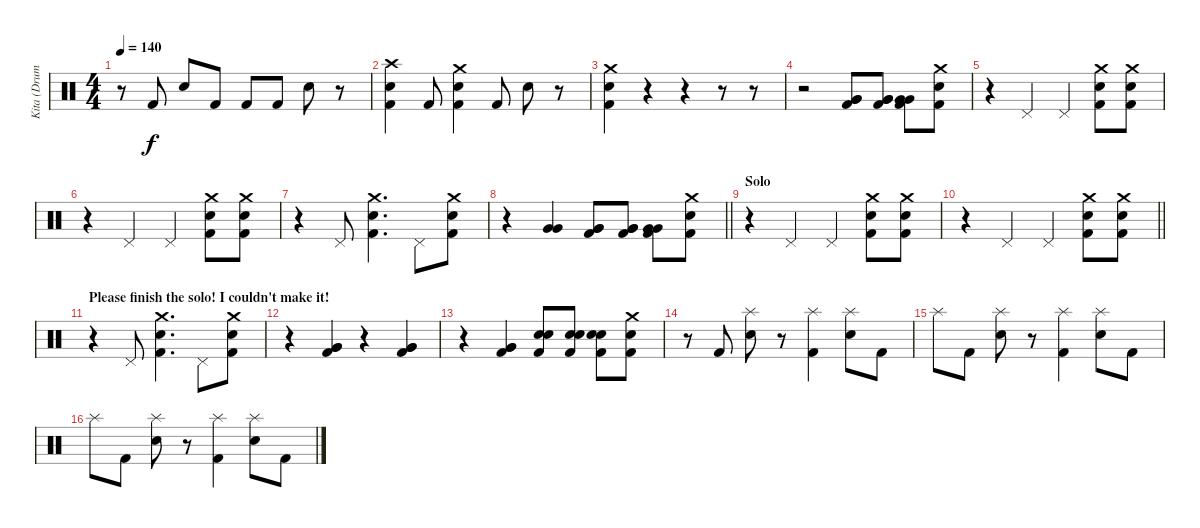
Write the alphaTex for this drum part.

\track ("Kita (Drums)" "Kita (Drum") {instrument percussion}
\staff {score}
\articulation defaults
\ts (4 4)
\tempo 140
\clef neutral
\ks c
r.8{dy f} "Kick (hit) 2".8 "Snare (hit) 2".8 "Kick (hit) 2".8 "Kick (hit) 2".8 "Kick (hit) 2".8 "Snare (hit) 2".8 r.8 |
("Crash high (hit)" "Snare (hit) 2" "Kick (hit) 2").4 "Kick (hit) 2".8 ("Crash medium (hit)" "Snare (hit) 2" "Kick (hit) 2").4 "Kick (hit) 2".8 "Snare (hit) 2".8 r.8 |
("Crash medium (hit)" "Snare (hit) 2" "Kick (hit) 2").4 r.4 r.4 r.8 r.8 |
r.2 ("Very Low Tom (hit)" "Very Low Tom (hit)" "Kick (hit) 2").8 ("Very Low Tom (hit)" "Very Low Tom (hit)" "Kick (hit) 2").8 ("Very Low Tom (hit)" "Very Low Tom (hit)" "Kick (hit) 2").8 ("Crash medium (hit)" "Snare (hit) 2" "Kick (hit) 2").8 |
r.4 "Pedal Hi-Hat (hit)".4 "Pedal Hi-Hat (hit)".4 ("Crash medium (hit)" "Snare (hit) 2" "Kick (hit) 2").8 ("Crash medium (hit)" "Snare (hit) 2" "Kick (hit) 2").8 |
r.4 "Pedal Hi-Hat (hit)".4 "Pedal Hi-Hat (hit)".4 ("Crash medium (hit)" "Snare (hit) 2" "Kick (hit) 2").8 ("Crash medium (hit)" "Snare (hit) 2" "Kick (hit) 2").8 |
r.4 "Pedal Hi-Hat (hit)".8 ("Crash medium (hit)" "Snare (hit) 2" "Kick (hit) 2").4{d} "Pedal Hi-Hat (hit)".8 ("Crash medium (hit)" "Snare (hit) 2" "Kick (hit) 2").8 |
\barLineRight lightlight
r.4 ("Very Low Tom (hit)" "Very Low Tom (hit)").4 ("Very Low Tom (hit)" "Very Low Tom (hit)" "Kick (hit) 2").8 ("Very Low Tom (hit)" "Very Low Tom (hit)" "Kick (hit) 2").8 ("Very Low Tom (hit)" "Very Low Tom (hit)" "Kick (hit) 2").8 ("Crash medium (hit)" "Snare (hit) 2" "Kick (hit) 2").8 |
\section ("" "Solo")
r.4 "Pedal Hi-Hat (hit)".4 "Pedal Hi-Hat (hit)".4 ("Crash medium (hit)" "Snare (hit) 2" "Kick (hit) 2").8 ("Crash medium (hit)" "Snare (hit) 2" "Kick (hit) 2").8 |
\barLineRight lightlight
r.4 "Pedal Hi-Hat (hit)".4 "Pedal Hi-Hat (hit)".4 ("Crash medium (hit)" "Snare (hit) 2" "Kick (hit) 2").8 ("Crash medium (hit)" "Snare (hit) 2" "Kick (hit) 2").8 |
\section ("" "Please finish the solo! I couldn't make it!")
r.4 "Pedal Hi-Hat (hit)".8 ("Crash medium (hit)" "Snare (hit) 2" "Kick (hit) 2").4{d} "Pedal Hi-Hat (hit)".8 ("Crash medium (hit)" "Snare (hit) 2" "Kick (hit) 2").8 |
r.4 ("Very Low Tom (hit)" "Very Low Tom (hit)" "Kick (hit) 2").4 r.4 ("Very Low Tom (hit)" "Very Low Tom (hit)" "Kick (hit) 2").4 |
r.4 ("Very Low Tom (hit)" "Very Low Tom (hit)" "Kick (hit) 2").4 ("Snare (hit) 2" "Snare (hit) 2" "Kick (hit) 2").8 ("Snare (hit) 2" "Snare (hit) 2" "Kick (hit) 2").8 ("Snare (hit) 2" "Snare (hit) 2" "Kick (hit) 2").8 ("Crash medium (hit)" "Snare (hit) 2" "Kick (hit) 2").8 |
r.8 "Kick (hit) 2".8 ("Splash (hit)" "Snare (hit) 2").8 r.8 ("Splash (hit)" "Kick (hit) 2").4 ("Splash (hit)" "Snare (hit) 2").8 "Kick (hit) 2".8 |
"Splash (hit)".8 "Kick (hit) 2".8 ("Splash (hit)" "Snare (hit) 2").8 r.8 ("Splash (hit)" "Kick (hit) 2").4 ("Splash (hit)" "Snare (hit) 2").8 "Kick (hit) 2".8 |
"Splash (hit)".8 "Kick (hit) 2".8 ("Splash (hit)" "Snare (hit) 2").8 r.8 ("Splash (hit)" "Kick (hit) 2").4 ("Splash (hit)" "Snare (hit) 2").8 "Kick (hit) 2".8
